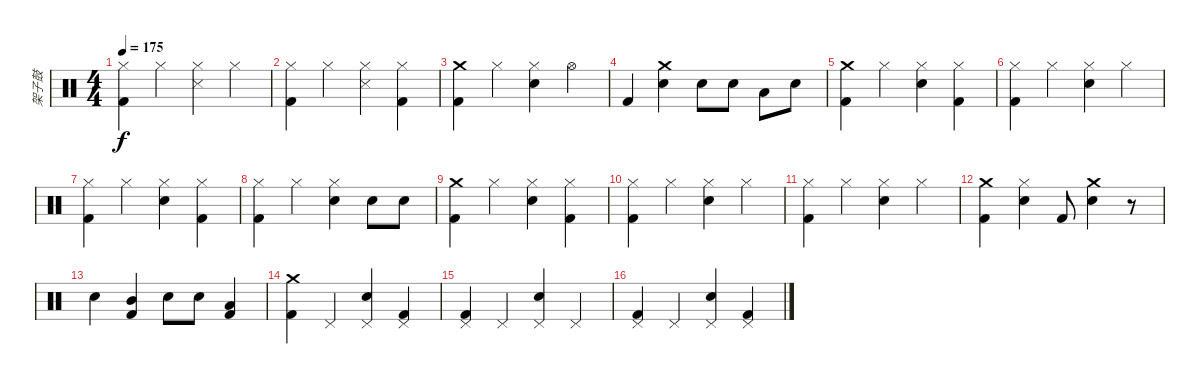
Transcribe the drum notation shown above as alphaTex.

\track ("架子鼓" "架子鼓") {instrument percussion}
\staff {score}
\articulation defaults
\ts (4 4)
\tempo 175
\clef neutral
\ks c
("Hi-Hat (closed)" "Kick (hit) 2").4{dy f} "Hi-Hat (closed)".4 ("Hi-Hat (closed)" "Snare (side stick) 3").4 "Hi-Hat (closed)".4 |
("Hi-Hat (closed)" "Kick (hit) 2").4 "Hi-Hat (closed)".4 ("Hi-Hat (closed)" "Snare (side stick) 3").4 ("Hi-Hat (closed)" "Kick (hit) 2").4 |
("Crash medium (hit)" "Kick (hit) 2").4 "Hi-Hat (closed)".4 ("Hi-Hat (closed)" "Electric Snare (hit)").4 "Hi-Hat (open)".4 |
"Kick (hit) 2".4 ("Crash medium (hit)" "Electric Snare (hit)").4 "Electric Snare (hit)".8 "Electric Snare (hit)".8 "Low Tom (hit)".8 "Electric Snare (hit)".8 |
("Crash medium (hit)" "Kick (hit) 2").4 "Hi-Hat (closed)".4 ("Hi-Hat (closed)" "Electric Snare (hit)").4 ("Hi-Hat (closed)" "Kick (hit) 2").4 |
("Hi-Hat (closed)" "Kick (hit) 2").4 "Hi-Hat (closed)".4 ("Hi-Hat (closed)" "Electric Snare (hit)").4 "Hi-Hat (closed)".4 |
("Hi-Hat (closed)" "Kick (hit) 2").4 "Hi-Hat (closed)".4 ("Hi-Hat (closed)" "Electric Snare (hit)").4 ("Hi-Hat (closed)" "Kick (hit) 2").4 |
("Hi-Hat (closed)" "Kick (hit) 2").4 "Hi-Hat (closed)".4 ("Hi-Hat (closed)" "Electric Snare (hit)").4 "Electric Snare (hit)".8 "Electric Snare (hit)".8 |
("Crash medium (hit)" "Kick (hit) 2").4 "Hi-Hat (closed)".4 ("Hi-Hat (closed)" "Electric Snare (hit)").4 ("Hi-Hat (closed)" "Kick (hit) 2").4 |
("Hi-Hat (closed)" "Kick (hit) 2").4 "Hi-Hat (closed)".4 ("Hi-Hat (closed)" "Electric Snare (hit)").4 "Hi-Hat (closed)".4 |
("Hi-Hat (closed)" "Kick (hit) 2").4 "Hi-Hat (closed)".4 ("Hi-Hat (closed)" "Electric Snare (hit)").4 "Hi-Hat (closed)".4 |
("Crash medium (hit)" "Kick (hit) 2").4 ("Hi-Hat (closed)" "Electric Snare (hit)").4 "Kick (hit) 2".8 ("Crash medium (hit)" "Electric Snare (hit)").4 r.8 |
"Electric Snare (hit)".4 ("Kick (hit) 2" "Mid Tom (hit)").4 "Electric Snare (hit)".8 "Electric Snare (hit)".8 ("Kick (hit) 2" "Low Tom (hit)").4 |
("Crash medium (hit)" "Kick (hit) 2").4 "Pedal Hi-Hat (hit)".4 ("Pedal Hi-Hat (hit)" "Electric Snare (hit)").4 ("Pedal Hi-Hat (hit)" "Kick (hit) 2").4 |
("Pedal Hi-Hat (hit)" "Kick (hit) 2").4 "Pedal Hi-Hat (hit)".4 ("Pedal Hi-Hat (hit)" "Electric Snare (hit)").4 "Pedal Hi-Hat (hit)".4 |
("Pedal Hi-Hat (hit)" "Kick (hit) 2").4 "Pedal Hi-Hat (hit)".4 ("Pedal Hi-Hat (hit)" "Electric Snare (hit)").4 ("Pedal Hi-Hat (hit)" "Kick (hit) 2").4
